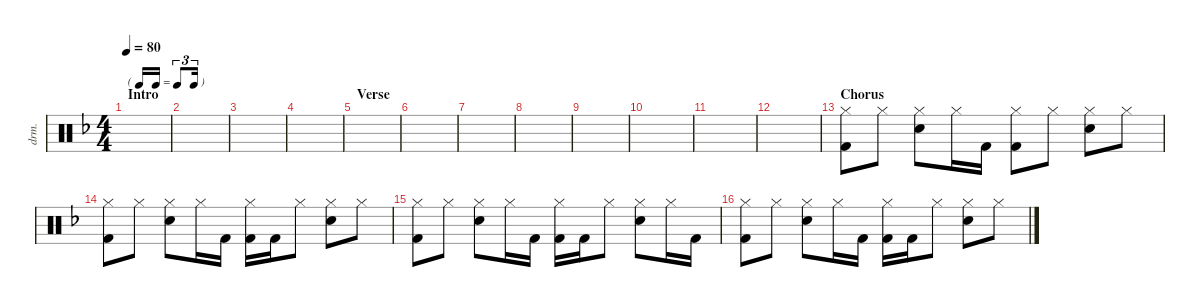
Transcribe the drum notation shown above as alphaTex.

\defaultSystemsLayout 4
\hideDynamics
\bracketExtendMode nobrackets
\otherSystemsTrackNameOrientation horizontal
\track ("Drumkit" "drm.") {instrument percussion}
\staff {score}
\articulation defaults
\ts (4 4)
\tf triplet16th
\section ("" "Intro")
\tempo 80
\clef neutral
\ks dminor
|
|
|
|
\section ("" "Verse")
|
|
|
|
|
|
|
|
\section ("" "Chorus")
("Kick (hit) 2"{acc forcenatural} "Hi-Hat (closed)"{acc forcenatural}).8{beam Down} "Hi-Hat (closed)"{acc forcenatural}.8{beam Down} ("Hi-Hat (closed)"{acc forcenatural} "Snare (hit) 2"{acc forcenatural}).8{beam Down} "Hi-Hat (closed)"{acc forcenatural}.16{beam Down} "Kick (hit) 2"{acc forcenatural}.16{beam Down} ("Hi-Hat (closed)"{acc forcenatural} "Kick (hit) 2"{acc forcenatural}).8{beam Down} "Hi-Hat (closed)"{acc forcenatural}.8{beam Down} ("Hi-Hat (closed)"{acc forcenatural} "Snare (hit) 2"{acc forcenatural}).8{beam Down} "Hi-Hat (closed)"{acc forcenatural}.8{beam Down} |
("Kick (hit) 2"{acc forcenatural} "Hi-Hat (closed)"{acc forcenatural}).8{beam Down} "Hi-Hat (closed)"{acc forcenatural}.8{beam Down} ("Hi-Hat (closed)"{acc forcenatural} "Snare (hit) 2"{acc forcenatural}).8{beam Down} "Hi-Hat (closed)"{acc forcenatural}.16{beam Down} "Kick (hit) 2"{acc forcenatural}.16{beam Down} ("Hi-Hat (closed)"{acc forcenatural} "Kick (hit) 2"{acc forcenatural}).16{beam Down} "Kick (hit) 2"{acc forcenatural}.16{beam Down} "Hi-Hat (closed)"{acc forcenatural}.8{beam Down} ("Snare (hit) 2"{acc forcenatural} "Hi-Hat (closed)"{acc forcenatural}).8{beam Down} "Hi-Hat (closed)"{acc forcenatural}.8{beam Down} |
("Kick (hit) 2"{acc forcenatural} "Hi-Hat (closed)"{acc forcenatural}).8{beam Down} "Hi-Hat (closed)"{acc forcenatural}.8{beam Down} ("Hi-Hat (closed)"{acc forcenatural} "Snare (hit) 2"{acc forcenatural}).8{beam Down} "Hi-Hat (closed)"{acc forcenatural}.16{beam Down} "Kick (hit) 2"{acc forcenatural}.16{beam Down} ("Hi-Hat (closed)"{acc forcenatural} "Kick (hit) 2"{acc forcenatural}).16{beam Down} "Kick (hit) 2"{acc forcenatural}.16{beam Down} "Hi-Hat (closed)"{acc forcenatural}.8{beam Down} ("Hi-Hat (closed)"{acc forcenatural} "Snare (hit) 2"{acc forcenatural}).8{beam Down} "Hi-Hat (closed)"{acc forcenatural}.16{beam Down} "Kick (hit) 2"{acc forcenatural}.16{beam Down} |
("Kick (hit) 2"{acc forcenatural} "Hi-Hat (closed)"{acc forcenatural}).8{beam Down} "Hi-Hat (closed)"{acc forcenatural}.8{beam Down} ("Hi-Hat (closed)"{acc forcenatural} "Snare (hit) 2"{acc forcenatural}).8{beam Down} "Hi-Hat (closed)"{acc forcenatural}.16{beam Down} "Kick (hit) 2"{acc forcenatural}.16{beam Down} ("Hi-Hat (closed)"{acc forcenatural} "Kick (hit) 2"{acc forcenatural}).16{beam Down} "Kick (hit) 2"{acc forcenatural}.16{beam Down} "Hi-Hat (closed)"{acc forcenatural}.8{beam Down} ("Snare (hit) 2"{acc forcenatural} "Hi-Hat (closed)"{acc forcenatural}).8{beam Down} "Hi-Hat (closed)"{acc forcenatural}.8{beam Down}
